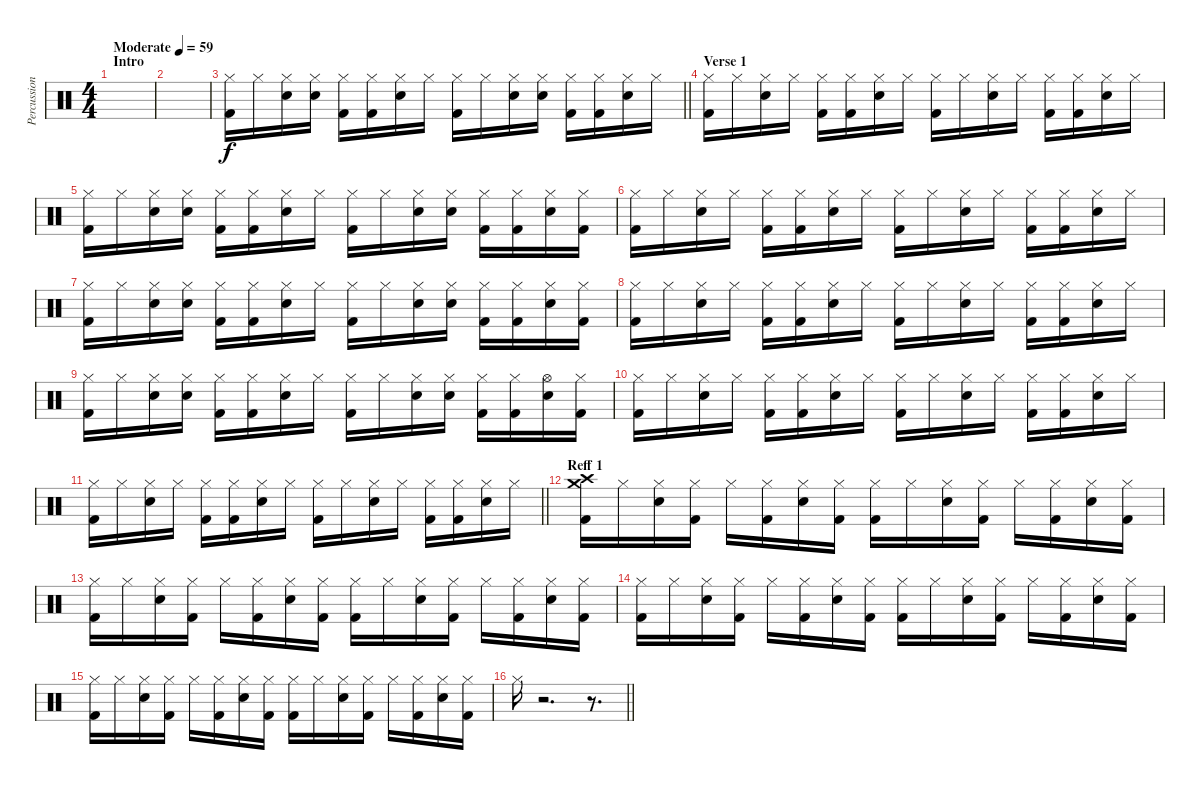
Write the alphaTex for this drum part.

\track ("Percussion 1" "Percussion") {instrument percussion}
\staff {score}
\articulation defaults
\ts (4 4)
\section ("" "Intro")
\tempo (59 "Moderate")
\clef neutral
\ks c
|
|
\barLineRight lightlight
("Hi-Hat (closed)" "Kick (hit) 2").16 "Hi-Hat (closed)".16 ("Hi-Hat (closed)" "Snare (hit) 2").16 ("Hi-Hat (closed)" "Snare (hit) 2").16 ("Hi-Hat (closed)" "Kick (hit) 2").16 ("Hi-Hat (closed)" "Kick (hit) 2").16 ("Hi-Hat (closed)" "Snare (hit) 2").16 "Hi-Hat (closed)".16 ("Hi-Hat (closed)" "Kick (hit) 2").16 "Hi-Hat (closed)".16 ("Hi-Hat (closed)" "Snare (hit) 2").16 ("Hi-Hat (closed)" "Snare (hit) 2").16 ("Hi-Hat (closed)" "Kick (hit) 2").16 ("Hi-Hat (closed)" "Kick (hit) 2").16 ("Hi-Hat (closed)" "Snare (hit) 2").16 "Hi-Hat (closed)".16 |
\section ("" "Verse 1")
("Hi-Hat (closed)" "Kick (hit) 2").16 "Hi-Hat (closed)".16 ("Hi-Hat (closed)" "Snare (hit) 2").16 "Hi-Hat (closed)".16 ("Hi-Hat (closed)" "Kick (hit) 2").16 ("Hi-Hat (closed)" "Kick (hit) 2").16 ("Hi-Hat (closed)" "Snare (hit) 2").16 "Hi-Hat (closed)".16 ("Hi-Hat (closed)" "Kick (hit) 2").16 "Hi-Hat (closed)".16 ("Hi-Hat (closed)" "Snare (hit) 2").16 "Hi-Hat (closed)".16 ("Hi-Hat (closed)" "Kick (hit) 2").16 ("Hi-Hat (closed)" "Kick (hit) 2").16 ("Hi-Hat (closed)" "Snare (hit) 2").16 "Hi-Hat (closed)".16 |
("Hi-Hat (closed)" "Kick (hit) 2").16 "Hi-Hat (closed)".16 ("Hi-Hat (closed)" "Snare (hit) 2").16 ("Hi-Hat (closed)" "Snare (hit) 2").16 ("Hi-Hat (closed)" "Kick (hit) 2").16 ("Hi-Hat (closed)" "Kick (hit) 2").16 ("Hi-Hat (closed)" "Snare (hit) 2").16 "Hi-Hat (closed)".16 ("Hi-Hat (closed)" "Kick (hit) 2").16 "Hi-Hat (closed)".16 ("Hi-Hat (closed)" "Snare (hit) 2").16 ("Hi-Hat (closed)" "Snare (hit) 2").16 ("Hi-Hat (closed)" "Kick (hit) 2").16 ("Hi-Hat (closed)" "Kick (hit) 2").16 ("Hi-Hat (closed)" "Snare (hit) 2").16 ("Hi-Hat (closed)" "Kick (hit) 2").16 |
("Hi-Hat (closed)" "Kick (hit) 2").16 "Hi-Hat (closed)".16 ("Hi-Hat (closed)" "Snare (hit) 2").16 "Hi-Hat (closed)".16 ("Hi-Hat (closed)" "Kick (hit) 2").16 ("Hi-Hat (closed)" "Kick (hit) 2").16 ("Hi-Hat (closed)" "Snare (hit) 2").16 "Hi-Hat (closed)".16 ("Hi-Hat (closed)" "Kick (hit) 2").16 "Hi-Hat (closed)".16 ("Hi-Hat (closed)" "Snare (hit) 2").16 "Hi-Hat (closed)".16 ("Hi-Hat (closed)" "Kick (hit) 2").16 ("Hi-Hat (closed)" "Kick (hit) 2").16 ("Hi-Hat (closed)" "Snare (hit) 2").16 "Hi-Hat (closed)".16 |
("Hi-Hat (closed)" "Kick (hit) 2").16 "Hi-Hat (closed)".16 ("Hi-Hat (closed)" "Snare (hit) 2").16 ("Hi-Hat (closed)" "Snare (hit) 2").16 ("Hi-Hat (closed)" "Kick (hit) 2").16 ("Hi-Hat (closed)" "Kick (hit) 2").16 ("Hi-Hat (closed)" "Snare (hit) 2").16 "Hi-Hat (closed)".16 ("Hi-Hat (closed)" "Kick (hit) 2").16 "Hi-Hat (closed)".16 ("Hi-Hat (closed)" "Snare (hit) 2").16 ("Hi-Hat (closed)" "Snare (hit) 2").16 ("Hi-Hat (closed)" "Kick (hit) 2").16 ("Hi-Hat (closed)" "Kick (hit) 2").16 ("Hi-Hat (closed)" "Snare (hit) 2").16 ("Hi-Hat (closed)" "Kick (hit) 2").16 |
("Hi-Hat (closed)" "Kick (hit) 2").16 "Hi-Hat (closed)".16 ("Hi-Hat (closed)" "Snare (hit) 2").16 "Hi-Hat (closed)".16 ("Hi-Hat (closed)" "Kick (hit) 2").16 ("Hi-Hat (closed)" "Kick (hit) 2").16 ("Hi-Hat (closed)" "Snare (hit) 2").16 "Hi-Hat (closed)".16 ("Hi-Hat (closed)" "Kick (hit) 2").16 "Hi-Hat (closed)".16 ("Hi-Hat (closed)" "Snare (hit) 2").16 "Hi-Hat (closed)".16 ("Hi-Hat (closed)" "Kick (hit) 2").16 ("Hi-Hat (closed)" "Kick (hit) 2").16 ("Hi-Hat (closed)" "Snare (hit) 2").16 "Hi-Hat (closed)".16 |
("Hi-Hat (closed)" "Kick (hit) 2").16 "Hi-Hat (closed)".16 ("Hi-Hat (closed)" "Snare (hit) 2").16 ("Hi-Hat (closed)" "Snare (hit) 2").16 ("Hi-Hat (closed)" "Kick (hit) 2").16 ("Hi-Hat (closed)" "Kick (hit) 2").16 ("Hi-Hat (closed)" "Snare (hit) 2").16 "Hi-Hat (closed)".16 ("Hi-Hat (closed)" "Kick (hit) 2").16 "Hi-Hat (closed)".16 ("Hi-Hat (closed)" "Snare (hit) 2").16 ("Hi-Hat (closed)" "Snare (hit) 2").16 ("Hi-Hat (closed)" "Kick (hit) 2").16 ("Hi-Hat (closed)" "Kick (hit) 2").16 ("Hi-Hat (open)" "Snare (hit) 2").16 ("Hi-Hat (closed)" "Kick (hit) 2").16 |
("Hi-Hat (closed)" "Kick (hit) 2").16 "Hi-Hat (closed)".16 ("Hi-Hat (closed)" "Snare (hit) 2").16 "Hi-Hat (closed)".16 ("Hi-Hat (closed)" "Kick (hit) 2").16 ("Hi-Hat (closed)" "Kick (hit) 2").16 ("Hi-Hat (closed)" "Snare (hit) 2").16 "Hi-Hat (closed)".16 ("Hi-Hat (closed)" "Kick (hit) 2").16 "Hi-Hat (closed)".16 ("Hi-Hat (closed)" "Snare (hit) 2").16 "Hi-Hat (closed)".16 ("Hi-Hat (closed)" "Kick (hit) 2").16 ("Hi-Hat (closed)" "Kick (hit) 2").16 ("Hi-Hat (closed)" "Snare (hit) 2").16 "Hi-Hat (closed)".16 |
\barLineRight lightlight
("Hi-Hat (closed)" "Kick (hit) 2").16 "Hi-Hat (closed)".16 ("Hi-Hat (closed)" "Snare (hit) 2").16 "Hi-Hat (closed)".16 ("Hi-Hat (closed)" "Kick (hit) 2").16 ("Hi-Hat (closed)" "Kick (hit) 2").16 ("Hi-Hat (closed)" "Snare (hit) 2").16 "Hi-Hat (closed)".16 ("Hi-Hat (closed)" "Kick (hit) 2").16 "Hi-Hat (closed)".16 ("Hi-Hat (closed)" "Snare (hit) 2").16 "Hi-Hat (closed)".16 ("Hi-Hat (closed)" "Kick (hit) 2").16 ("Hi-Hat (closed)" "Kick (hit) 2").16 ("Hi-Hat (closed)" "Snare (hit) 2").16 "Hi-Hat (closed)".16 |
\section ("" "Reff 1")
("Crash high (hit)" "Crash medium (hit)" "Kick (hit) 2").16 "Hi-Hat (closed)".16 ("Hi-Hat (closed)" "Snare (hit) 2").16 ("Hi-Hat (closed)" "Kick (hit) 2").16 "Hi-Hat (closed)".16 ("Hi-Hat (closed)" "Kick (hit) 2").16 ("Hi-Hat (closed)" "Snare (hit) 2").16 ("Hi-Hat (closed)" "Kick (hit) 2").16 ("Hi-Hat (closed)" "Kick (hit) 2").16 "Hi-Hat (closed)".16 ("Hi-Hat (closed)" "Snare (hit) 2").16 ("Hi-Hat (closed)" "Kick (hit) 2").16 "Hi-Hat (closed)".16 ("Hi-Hat (closed)" "Kick (hit) 2").16 ("Hi-Hat (closed)" "Snare (hit) 2").16 ("Hi-Hat (closed)" "Kick (hit) 2").16 |
("Hi-Hat (closed)" "Kick (hit) 2").16 "Hi-Hat (closed)".16 ("Hi-Hat (closed)" "Snare (hit) 2").16 ("Hi-Hat (closed)" "Kick (hit) 2").16 "Hi-Hat (closed)".16 ("Hi-Hat (closed)" "Kick (hit) 2").16 ("Hi-Hat (closed)" "Snare (hit) 2").16 ("Hi-Hat (closed)" "Kick (hit) 2").16 ("Hi-Hat (closed)" "Kick (hit) 2").16 "Hi-Hat (closed)".16 ("Hi-Hat (closed)" "Snare (hit) 2").16 ("Hi-Hat (closed)" "Kick (hit) 2").16 "Hi-Hat (closed)".16 ("Hi-Hat (closed)" "Kick (hit) 2").16 ("Hi-Hat (closed)" "Snare (hit) 2").16 ("Hi-Hat (closed)" "Kick (hit) 2").16 |
("Hi-Hat (closed)" "Kick (hit) 2").16 "Hi-Hat (closed)".16 ("Hi-Hat (closed)" "Snare (hit) 2").16 ("Hi-Hat (closed)" "Kick (hit) 2").16 "Hi-Hat (closed)".16 ("Hi-Hat (closed)" "Kick (hit) 2").16 ("Hi-Hat (closed)" "Snare (hit) 2").16 ("Hi-Hat (closed)" "Kick (hit) 2").16 ("Hi-Hat (closed)" "Kick (hit) 2").16 "Hi-Hat (closed)".16 ("Hi-Hat (closed)" "Snare (hit) 2").16 ("Hi-Hat (closed)" "Kick (hit) 2").16 "Hi-Hat (closed)".16 ("Hi-Hat (closed)" "Kick (hit) 2").16 ("Hi-Hat (closed)" "Snare (hit) 2").16 ("Hi-Hat (closed)" "Kick (hit) 2").16 |
("Hi-Hat (closed)" "Kick (hit) 2").16 "Hi-Hat (closed)".16 ("Hi-Hat (closed)" "Snare (hit) 2").16 ("Hi-Hat (closed)" "Kick (hit) 2").16 "Hi-Hat (closed)".16 ("Hi-Hat (closed)" "Kick (hit) 2").16 ("Hi-Hat (closed)" "Snare (hit) 2").16 ("Hi-Hat (closed)" "Kick (hit) 2").16 ("Hi-Hat (closed)" "Kick (hit) 2").16 "Hi-Hat (closed)".16 ("Hi-Hat (closed)" "Snare (hit) 2").16 ("Hi-Hat (closed)" "Kick (hit) 2").16 "Hi-Hat (closed)".16 ("Hi-Hat (closed)" "Kick (hit) 2").16 ("Hi-Hat (closed)" "Snare (hit) 2").16 ("Hi-Hat (closed)" "Kick (hit) 2").16 |
\barLineRight lightlight "Hi-Hat (closed)".16
r.2{d} r.8{d}
